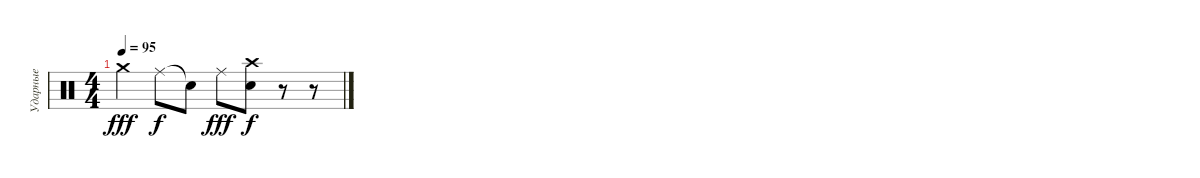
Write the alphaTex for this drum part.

\track ("Ударные" "Ударные") {instrument percussion}
\staff {score}
\articulation defaults
\ts (4 4)
\tempo 95
\clef neutral
\ks c "Crash medium (hit)".4{dy fff} "Ride (middle)".8{dy f} "Snare (hit)"{t}.8 "Ride (middle)".8{dy fff}
("Crash high (hit)" "Electric Snare (hit)").8{dy f} r.8 r.8
